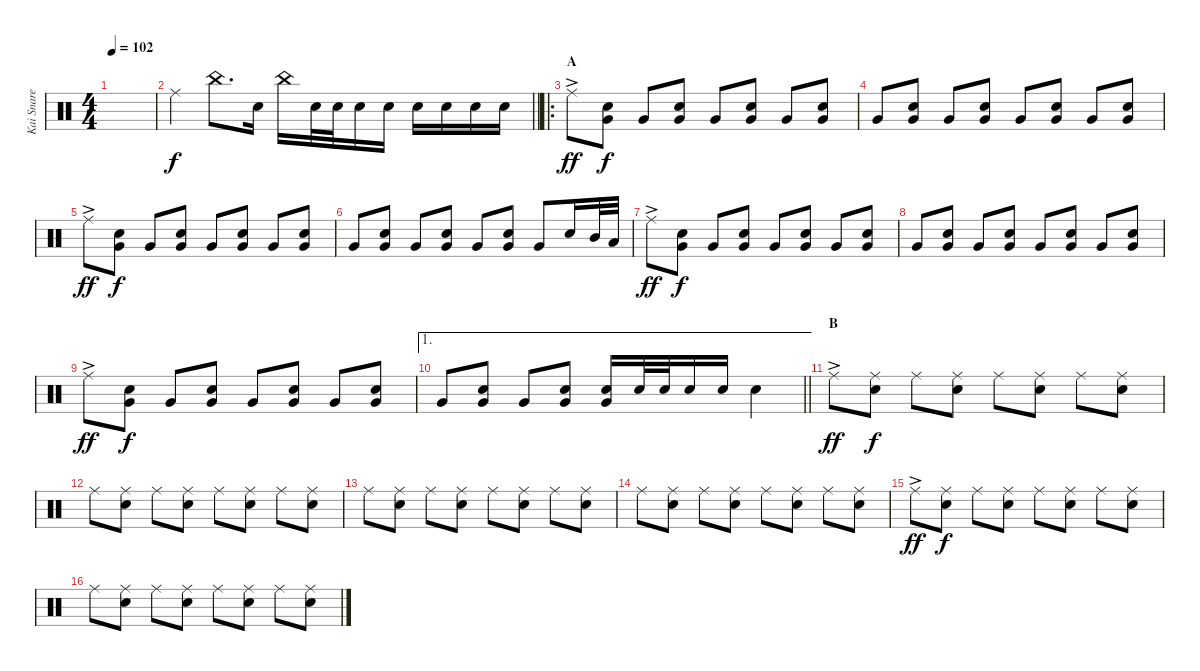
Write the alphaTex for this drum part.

\track ("Kai Snare" "Kai Snare") {instrument percussion}
\staff {score}
\articulation defaults
\ts (4 4)
\tempo 102
\clef neutral
\ks c
|
\barLineRight lightlight "Ride (middle)".4 "China (hit)".8{d} "Snare (hit) 2".16 "China (hit)".16 "Snare (hit) 2".32 "Snare (hit) 2".32 "Snare (hit) 2".16 "Snare (hit) 2".16 "Snare (hit) 2".16 "Snare (hit) 2".16 "Snare (hit) 2".16 "Snare (hit) 2".16
|
\ro
\section ("" "A")
"Ride (middle)"{ac}.8{dy ff} ("Very Low Tom (hit)" "Snare (hit) 2").8{dy f} "Very Low Tom (hit)".8 ("Very Low Tom (hit)" "Snare (hit) 2").8 "Very Low Tom (hit)".8 ("Very Low Tom (hit)" "Snare (hit) 2").8 "Very Low Tom (hit)".8 ("Very Low Tom (hit)" "Snare (hit) 2").8 |
"Very Low Tom (hit)".8 ("Very Low Tom (hit)" "Snare (hit) 2").8 "Very Low Tom (hit)".8 ("Very Low Tom (hit)" "Snare (hit) 2").8 "Very Low Tom (hit)".8 ("Very Low Tom (hit)" "Snare (hit) 2").8 "Very Low Tom (hit)".8 ("Very Low Tom (hit)" "Snare (hit) 2").8 |
"Ride (middle)"{ac}.8{dy ff} ("Very Low Tom (hit)" "Snare (hit) 2").8{dy f} "Very Low Tom (hit)".8 ("Very Low Tom (hit)" "Snare (hit) 2").8 "Very Low Tom (hit)".8 ("Very Low Tom (hit)" "Snare (hit) 2").8 "Very Low Tom (hit)".8 ("Very Low Tom (hit)" "Snare (hit) 2").8 |
"Very Low Tom (hit)".8 ("Very Low Tom (hit)" "Snare (hit) 2").8 "Very Low Tom (hit)".8 ("Very Low Tom (hit)" "Snare (hit) 2").8 "Very Low Tom (hit)".8 ("Very Low Tom (hit)" "Snare (hit) 2").8 "Very Low Tom (hit)".8 "Snare (hit) 2".16 "Mid Tom (hit)".32 "Low Tom (hit)".32 |
"Ride (middle)"{ac}.8{dy ff} ("Very Low Tom (hit)" "Snare (hit) 2").8{dy f} "Very Low Tom (hit)".8 ("Very Low Tom (hit)" "Snare (hit) 2").8 "Very Low Tom (hit)".8 ("Very Low Tom (hit)" "Snare (hit) 2").8 "Very Low Tom (hit)".8 ("Very Low Tom (hit)" "Snare (hit) 2").8 |
"Very Low Tom (hit)".8 ("Very Low Tom (hit)" "Snare (hit) 2").8 "Very Low Tom (hit)".8 ("Very Low Tom (hit)" "Snare (hit) 2").8 "Very Low Tom (hit)".8 ("Very Low Tom (hit)" "Snare (hit) 2").8 "Very Low Tom (hit)".8 ("Very Low Tom (hit)" "Snare (hit) 2").8 |
"Ride (middle)"{ac}.8{dy ff} ("Very Low Tom (hit)" "Snare (hit) 2").8{dy f} "Very Low Tom (hit)".8 ("Very Low Tom (hit)" "Snare (hit) 2").8 "Very Low Tom (hit)".8 ("Very Low Tom (hit)" "Snare (hit) 2").8 "Very Low Tom (hit)".8 ("Very Low Tom (hit)" "Snare (hit) 2").8 |
\ae 1
\barLineRight lightlight "Very Low Tom (hit)".8
("Very Low Tom (hit)" "Snare (hit) 2").8 "Very Low Tom (hit)".8 ("Very Low Tom (hit)" "Snare (hit) 2").8 ("Very Low Tom (hit)" "Snare (hit) 2").16 "Snare (hit) 2".32 "Snare (hit) 2".32 "Snare (hit) 2".16 "Snare (hit) 2".16 "Snare (hit) 2".4 |
\section ("" "B")
"Ride (middle)"{ac}.8{dy ff} ("Ride (middle)" "Snare (hit) 2").8{dy f} "Ride (middle)".8 ("Ride (middle)" "Snare (hit) 2").8 "Ride (middle)".8 ("Ride (middle)" "Snare (hit) 2").8 "Ride (middle)".8 ("Ride (middle)" "Snare (hit) 2").8 |
"Ride (middle)".8 ("Ride (middle)" "Snare (hit) 2").8 "Ride (middle)".8 ("Ride (middle)" "Snare (hit) 2").8 "Ride (middle)".8 ("Ride (middle)" "Snare (hit) 2").8 "Ride (middle)".8 ("Ride (middle)" "Snare (hit) 2").8 |
"Ride (middle)".8 ("Ride (middle)" "Snare (hit) 2").8 "Ride (middle)".8 ("Ride (middle)" "Snare (hit) 2").8 "Ride (middle)".8 ("Ride (middle)" "Snare (hit) 2").8 "Ride (middle)".8 ("Ride (middle)" "Snare (hit) 2").8 |
"Ride (middle)".8 ("Ride (middle)" "Snare (hit) 2").8 "Ride (middle)".8 ("Ride (middle)" "Snare (hit) 2").8 "Ride (middle)".8 ("Ride (middle)" "Snare (hit) 2").8 "Ride (middle)".8 ("Ride (middle)" "Snare (hit) 2").8 |
"Ride (middle)"{ac}.8{dy ff} ("Ride (middle)" "Snare (hit) 2").8{dy f} "Ride (middle)".8 ("Ride (middle)" "Snare (hit) 2").8 "Ride (middle)".8 ("Ride (middle)" "Snare (hit) 2").8 "Ride (middle)".8 ("Ride (middle)" "Snare (hit) 2").8 |
"Ride (middle)".8 ("Ride (middle)" "Snare (hit) 2").8 "Ride (middle)".8 ("Ride (middle)" "Snare (hit) 2").8 "Ride (middle)".8 ("Ride (middle)" "Snare (hit) 2").8 "Ride (middle)".8 ("Ride (middle)" "Snare (hit) 2").8
